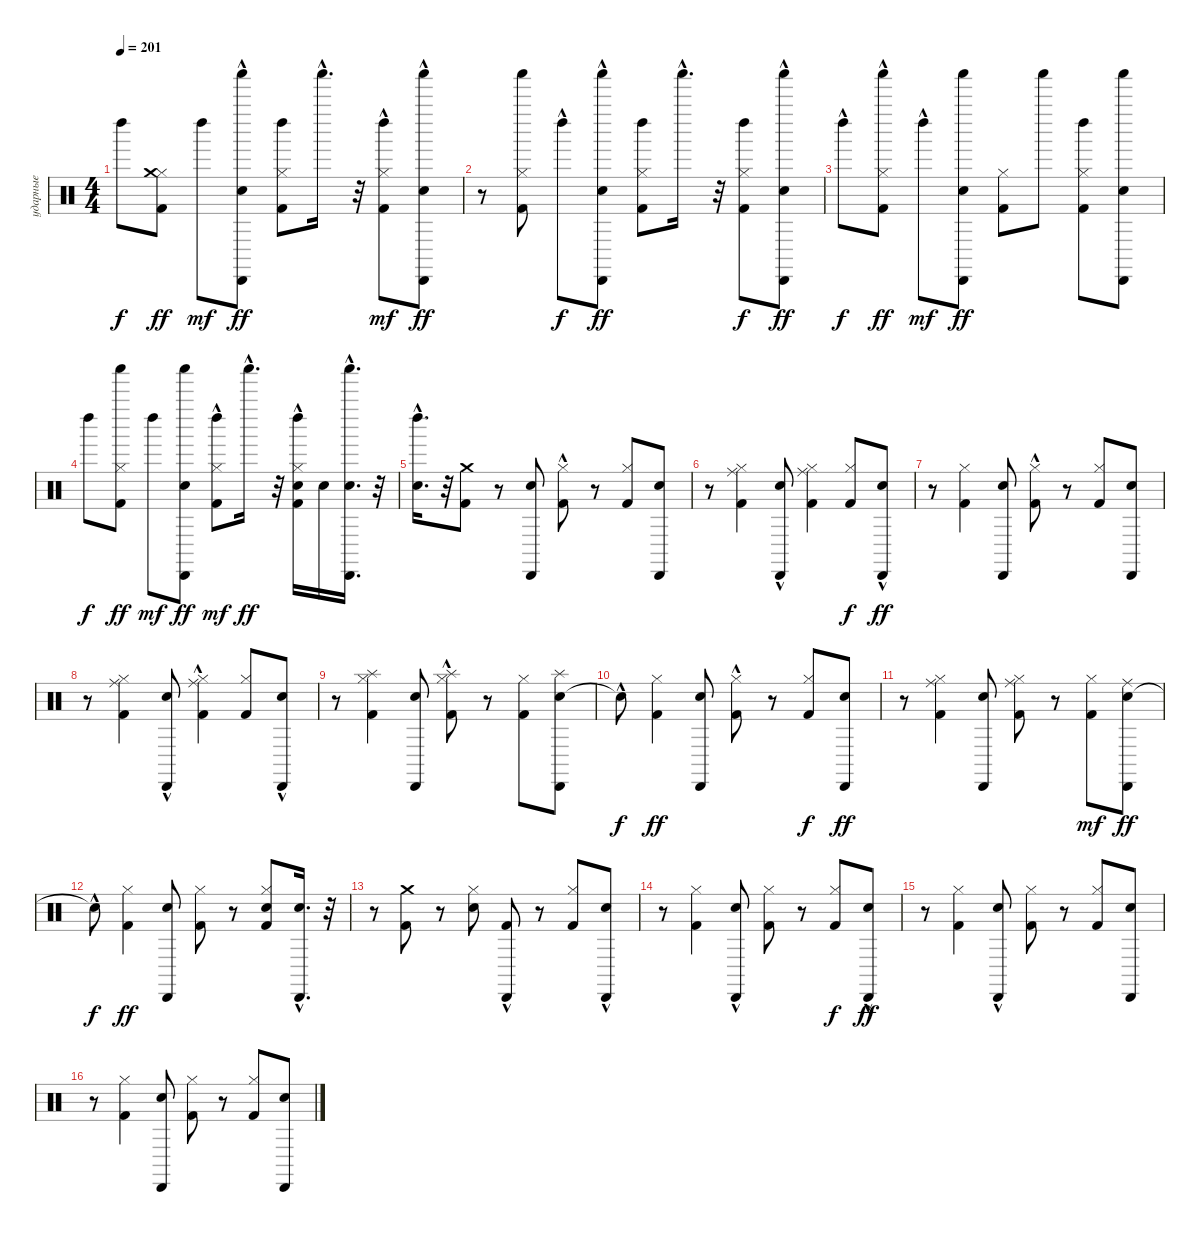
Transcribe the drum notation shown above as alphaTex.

\track ("ударные" "ударные") {instrument percussion}
\staff {score}
\articulation defaults
\ts (4 4)
\tempo 201
\clef neutral
\ks c "Left Maraca (hit)".8{dy f}
("Kick (hit) 2" "Hi-Hat (closed)" "Crash medium (hit)").8{dy ff} "Left Maraca (hit)".8{dy mf} ("Electric Snare (hit)" "Cabasa (hit)" "Shaker (hit)"{hac}).8{dy ff} ("Kick (hit) 2" "Hi-Hat (closed)" "Left Maraca (hit)").8 "Shaker (hit)"{hac}.16{d} r.32 ("Kick (hit) 2" "Hi-Hat (closed)" "Left Maraca (hit)"{hac}).8{dy mf} ("Electric Snare (hit)" "Cabasa (hit)"{hac} "Shaker (hit)").8{dy ff} |
r.8 ("Kick (hit) 2" "Hi-Hat (closed)" "Shaker (hit)").8 "Left Maraca (hit)"{hac}.8{dy f} ("Electric Snare (hit)" "Cabasa (hit)" "Shaker (hit)"{hac}).8{dy ff} ("Kick (hit) 2" "Hi-Hat (closed)" "Left Maraca (hit)").8 "Shaker (hit)"{hac}.16{d} r.32 ("Kick (hit) 2" "Hi-Hat (closed)" "Left Maraca (hit)").8{dy f} ("Electric Snare (hit)" "Cabasa (hit)" "Shaker (hit)"{hac}).8{dy ff} |
"Left Maraca (hit)"{hac}.8{dy f} ("Kick (hit) 2" "Hi-Hat (closed)"{hac} "Shaker (hit)"{hac}).8{dy ff} "Left Maraca (hit)"{hac}.8{dy mf} ("Electric Snare (hit)" "Cabasa (hit)" "Shaker (hit)").8{dy ff} ("Kick (hit) 2" "Hi-Hat (closed)").8 "Shaker (hit)".8 ("Kick (hit) 2" "Hi-Hat (closed)" "Left Maraca (hit)").8 ("Electric Snare (hit)" "Cabasa (hit)" "Shaker (hit)").8 |
"Left Maraca (hit)".8{dy f} ("Kick (hit) 2" "Hi-Hat (closed)" "Shaker (hit)").8{dy ff} "Left Maraca (hit)".8{dy mf} ("Electric Snare (hit)" "Cabasa (hit)" "Shaker (hit)").8{dy ff} ("Kick (hit) 2" "Hi-Hat (closed)"{hac} "Left Maraca (hit)").8{dy mf} "Shaker (hit)"{hac}.16{d dy ff} r.32 ("Kick (hit) 2" "Electric Snare (hit)" "Hi-Hat (closed)"{hac} "Left Maraca (hit)").16 "Electric Snare (hit)".16 ("Electric Snare (hit)" "Cabasa (hit)" "Shaker (hit)"{hac}).16{d} r.32 |
("Electric Snare (hit)" "Left Maraca (hit)"{hac}).16{d} r.32 ("Kick (hit) 2" "Crash medium (hit)").8 r.8 ("Electric Snare (hit)" "Cabasa (hit)").8 ("Kick (hit) 2" "Hi-Hat (closed)"{hac}).8 r.8 ("Kick (hit) 2" "Hi-Hat (closed)").8 ("Electric Snare (hit)" "Cabasa (hit)").8 |
r.8 ("Kick (hit) 2" "Hi-Hat (closed)" "Ride (middle)").4 ("Electric Snare (hit)" "Cabasa (hit)"{hac}).8 ("Kick (hit) 2" "Hi-Hat (closed)" "Ride (middle)").4 ("Kick (hit) 2" "Hi-Hat (closed)").8{dy f} ("Electric Snare (hit)" "Cabasa (hit)"{hac}).8{dy ff} |
r.8 ("Kick (hit) 2" "Hi-Hat (closed)").4 ("Electric Snare (hit)" "Cabasa (hit)").8 ("Kick (hit) 2" "Hi-Hat (closed)"{hac}).8 r.8 ("Kick (hit) 2" "Hi-Hat (closed)").8 ("Electric Snare (hit)" "Cabasa (hit)").8 |
r.8 ("Kick (hit) 2" "Hi-Hat (closed)" "Ride (middle)").4 ("Electric Snare (hit)" "Cabasa (hit)"{hac}).8 ("Kick (hit) 2" "Hi-Hat (closed)"{hac} "Ride (middle)"{hac}).4 ("Kick (hit) 2" "Hi-Hat (closed)").8 ("Electric Snare (hit)" "Cabasa (hit)"{hac}).8 |
r.8 ("Kick (hit) 2" "Hi-Hat (closed)" "Splash (hit)").4 ("Electric Snare (hit)" "Cabasa (hit)").8 ("Kick (hit) 2" "Hi-Hat (closed)"{hac} "Splash (hit)").8 r.8 ("Kick (hit) 2" "Hi-Hat (closed)").8 ("Electric Snare (hit)" "Splash (hit)" "Cabasa (hit)").8 |
"Snare (hit)"{hac t}.8{dy f} ("Kick (hit) 2" "Hi-Hat (closed)").4{dy ff} ("Electric Snare (hit)" "Cabasa (hit)").8 ("Kick (hit) 2" "Hi-Hat (closed)"{hac}).8 r.8 ("Kick (hit) 2" "Hi-Hat (closed)").8{dy f} ("Electric Snare (hit)" "Cabasa (hit)").8{dy ff} |
r.8 ("Kick (hit) 2" "Hi-Hat (closed)" "Ride (middle)").4 ("Electric Snare (hit)" "Cabasa (hit)").8 ("Kick (hit) 2" "Hi-Hat (closed)" "Ride (middle)").8 r.8 ("Kick (hit) 2" "Hi-Hat (closed)").8{dy mf} ("Electric Snare (hit)" "Ride (middle)" "Cabasa (hit)").8{dy ff} |
"Snare (hit)"{hac t}.8{dy f} ("Kick (hit) 2" "Hi-Hat (closed)").4{dy ff} ("Electric Snare (hit)" "Cabasa (hit)").8 ("Kick (hit) 2" "Hi-Hat (closed)").8 r.8 ("Kick (hit) 2" "Electric Snare (hit)" "Hi-Hat (closed)").8 ("Electric Snare (hit)" "Cabasa (hit)"{hac}).16{d} r.32 |
r.8 ("Kick (hit) 2" "Crash medium (hit)").8 r.8 ("Electric Snare (hit)" "Hi-Hat (closed)").8 ("Kick (hit) 2" "Cabasa (hit)"{hac}).8 r.8 ("Kick (hit) 2" "Hi-Hat (closed)").8 ("Electric Snare (hit)" "Cabasa (hit)"{hac}).8 |
r.8 ("Kick (hit) 2" "Hi-Hat (closed)").4 ("Electric Snare (hit)" "Cabasa (hit)"{hac}).8 ("Kick (hit) 2" "Hi-Hat (closed)").8 r.8 ("Kick (hit) 2" "Hi-Hat (closed)").8{dy f} ("Electric Snare (hit)" "Cabasa (hit)"{hac}).8{dy ff} |
r.8 ("Kick (hit) 2" "Hi-Hat (closed)").4 ("Electric Snare (hit)" "Cabasa (hit)"{hac}).8 ("Kick (hit) 2" "Hi-Hat (closed)").8 r.8 ("Kick (hit) 2" "Hi-Hat (closed)").8 ("Electric Snare (hit)" "Cabasa (hit)").8 |
r.8 ("Kick (hit) 2" "Hi-Hat (closed)").4 ("Electric Snare (hit)" "Cabasa (hit)").8 ("Kick (hit) 2" "Hi-Hat (closed)").8 r.8 ("Kick (hit) 2" "Hi-Hat (closed)").8 ("Electric Snare (hit)" "Cabasa (hit)").8
